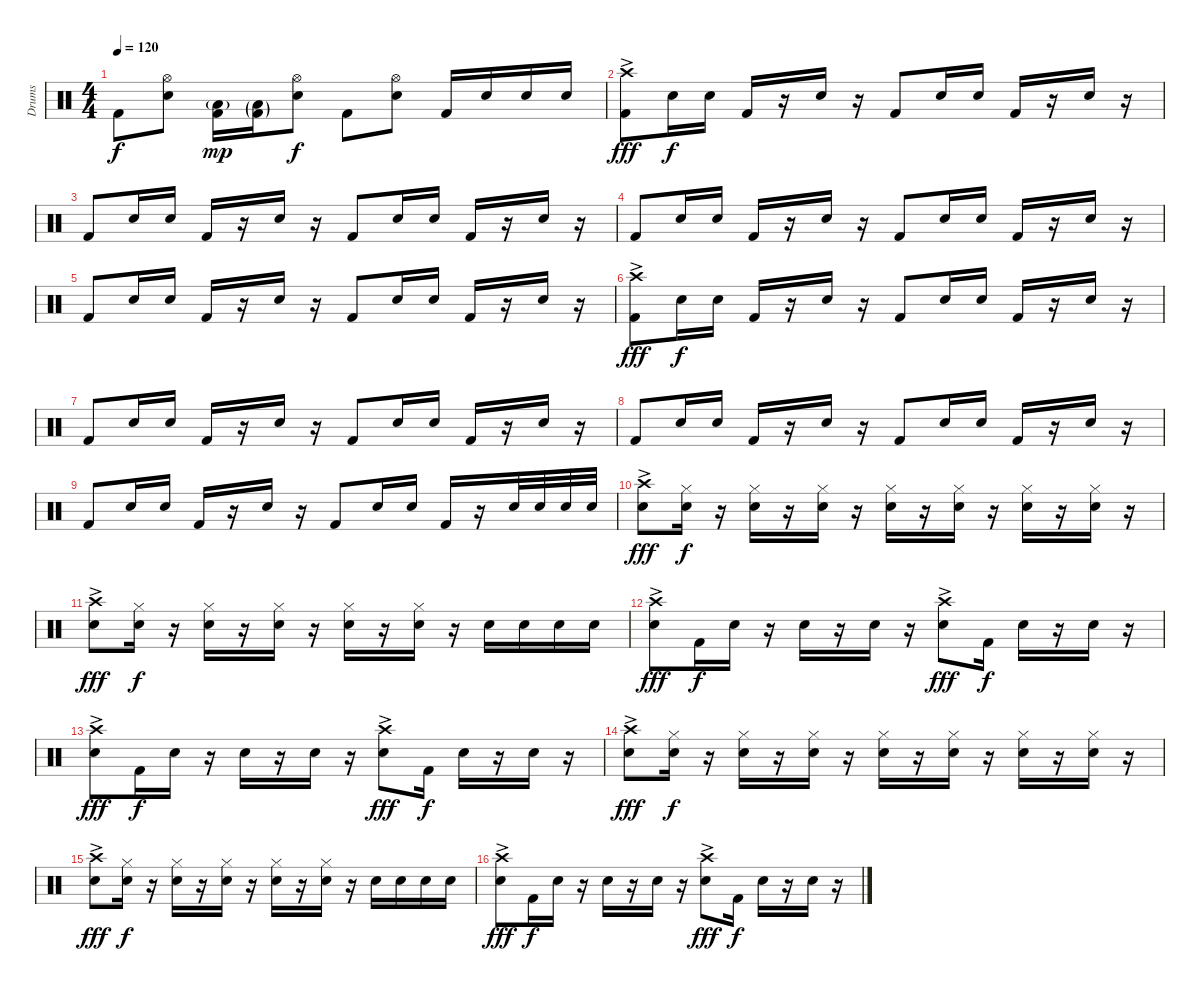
\track ("Drums" "Drums") {instrument percussion}
\staff {score}
\articulation defaults
\ts (4 4)
\tempo 120
\clef neutral
\ks c "Kick (hit) 2".8{dy f}
("Hi-Hat (open)" "Snare (hit) 2").8 ("Kick (hit) 2" "Low Floor Tom (hit)"{g}).16{dy mp} ("Kick (hit) 2"{g} "Low Floor Tom (hit)"{g}).16 ("Hi-Hat (open)" "Snare (hit) 2").8{dy f} "Kick (hit) 2".8 ("Hi-Hat (open)" "Snare (hit) 2").8 "Kick (hit) 2".16 "Snare (hit) 2".16 "Snare (hit) 2".16 "Snare (hit) 2".16 |
("Crash high (hit)"{ac} "Kick (hit) 2").8{dy fff} "Snare (hit) 2".16{dy f} "Snare (hit) 2".16 "Kick (hit) 2".16 r.16 "Snare (hit) 2".16 r.16 "Kick (hit) 2".8 "Snare (hit) 2".16 "Snare (hit) 2".16 "Kick (hit) 2".16 r.16 "Snare (hit) 2".16 r.16 |
"Kick (hit) 2".8 "Snare (hit) 2".16 "Snare (hit) 2".16 "Kick (hit) 2".16 r.16 "Snare (hit) 2".16 r.16 "Kick (hit) 2".8 "Snare (hit) 2".16 "Snare (hit) 2".16 "Kick (hit) 2".16 r.16 "Snare (hit) 2".16 r.16 |
"Kick (hit) 2".8 "Snare (hit) 2".16 "Snare (hit) 2".16 "Kick (hit) 2".16 r.16 "Snare (hit) 2".16 r.16 "Kick (hit) 2".8 "Snare (hit) 2".16 "Snare (hit) 2".16 "Kick (hit) 2".16 r.16 "Snare (hit) 2".16 r.16 |
"Kick (hit) 2".8 "Snare (hit) 2".16 "Snare (hit) 2".16 "Kick (hit) 2".16 r.16 "Snare (hit) 2".16 r.16 "Kick (hit) 2".8 "Snare (hit) 2".16 "Snare (hit) 2".16 "Kick (hit) 2".16 r.16 "Snare (hit) 2".16 r.16 |
("Crash high (hit)"{ac} "Kick (hit) 2").8{dy fff} "Snare (hit) 2".16{dy f} "Snare (hit) 2".16 "Kick (hit) 2".16 r.16 "Snare (hit) 2".16 r.16 "Kick (hit) 2".8 "Snare (hit) 2".16 "Snare (hit) 2".16 "Kick (hit) 2".16 r.16 "Snare (hit) 2".16 r.16 |
"Kick (hit) 2".8 "Snare (hit) 2".16 "Snare (hit) 2".16 "Kick (hit) 2".16 r.16 "Snare (hit) 2".16 r.16 "Kick (hit) 2".8 "Snare (hit) 2".16 "Snare (hit) 2".16 "Kick (hit) 2".16 r.16 "Snare (hit) 2".16 r.16 |
"Kick (hit) 2".8 "Snare (hit) 2".16 "Snare (hit) 2".16 "Kick (hit) 2".16 r.16 "Snare (hit) 2".16 r.16 "Kick (hit) 2".8 "Snare (hit) 2".16 "Snare (hit) 2".16 "Kick (hit) 2".16 r.16 "Snare (hit) 2".16 r.16 |
"Kick (hit) 2".8 "Snare (hit) 2".16 "Snare (hit) 2".16 "Kick (hit) 2".16 r.16 "Snare (hit) 2".16 r.16 "Kick (hit) 2".8 "Snare (hit) 2".16 "Snare (hit) 2".16 "Kick (hit) 2".16 r.16 "Snare (hit) 2".32 "Snare (hit) 2".32 "Snare (hit) 2".32 "Snare (hit) 2".32 |
("Crash high (hit)"{ac} "Snare (hit) 2").8{dy fff} ("Hi-Hat (closed)" "Snare (hit) 2").16{dy f} r.16 ("Hi-Hat (closed)" "Snare (hit) 2").16 r.16 ("Hi-Hat (closed)" "Snare (hit) 2").16 r.16 ("Hi-Hat (closed)" "Snare (hit) 2").16 r.16 ("Hi-Hat (closed)" "Snare (hit) 2").16 r.16 ("Hi-Hat (closed)" "Snare (hit) 2").16 r.16 ("Hi-Hat (closed)" "Snare (hit) 2").16 r.16 |
("Crash high (hit)"{ac} "Snare (hit) 2").8{dy fff} ("Hi-Hat (closed)" "Snare (hit) 2").16{dy f} r.16 ("Hi-Hat (closed)" "Snare (hit) 2").16 r.16 ("Hi-Hat (closed)" "Snare (hit) 2").16 r.16 ("Hi-Hat (closed)" "Snare (hit) 2").16 r.16 ("Hi-Hat (closed)" "Snare (hit) 2").16 r.16 "Snare (hit) 2".16 "Snare (hit) 2".16 "Snare (hit) 2".16 "Snare (hit) 2".16 |
("Crash high (hit)"{ac} "Snare (hit) 2").8{dy fff} "Kick (hit) 2".16{dy f} "Snare (hit) 2".16 r.16 "Snare (hit) 2".16 r.16 "Snare (hit) 2".16 r.16 ("Crash high (hit)"{ac} "Snare (hit) 2").8{dy fff} "Kick (hit) 2".16{dy f} "Snare (hit) 2".16 r.16 "Snare (hit) 2".16 r.16 |
("Crash high (hit)"{ac} "Snare (hit) 2").8{dy fff} "Kick (hit) 2".16{dy f} "Snare (hit) 2".16 r.16 "Snare (hit) 2".16 r.16 "Snare (hit) 2".16 r.16 ("Crash high (hit)"{ac} "Snare (hit) 2").8{dy fff} "Kick (hit) 2".16{dy f} "Snare (hit) 2".16 r.16 "Snare (hit) 2".16 r.16 |
("Crash high (hit)"{ac} "Snare (hit) 2").8{dy fff} ("Hi-Hat (closed)" "Snare (hit) 2").16{dy f} r.16 ("Hi-Hat (closed)" "Snare (hit) 2").16 r.16 ("Hi-Hat (closed)" "Snare (hit) 2").16 r.16 ("Hi-Hat (closed)" "Snare (hit) 2").16 r.16 ("Hi-Hat (closed)" "Snare (hit) 2").16 r.16 ("Hi-Hat (closed)" "Snare (hit) 2").16 r.16 ("Hi-Hat (closed)" "Snare (hit) 2").16 r.16 |
("Crash high (hit)"{ac} "Snare (hit) 2").8{dy fff} ("Hi-Hat (closed)" "Snare (hit) 2").16{dy f} r.16 ("Hi-Hat (closed)" "Snare (hit) 2").16 r.16 ("Hi-Hat (closed)" "Snare (hit) 2").16 r.16 ("Hi-Hat (closed)" "Snare (hit) 2").16 r.16 ("Hi-Hat (closed)" "Snare (hit) 2").16 r.16 "Snare (hit) 2".16 "Snare (hit) 2".16 "Snare (hit) 2".16 "Snare (hit) 2".16 |
("Crash high (hit)"{ac} "Snare (hit) 2").8{dy fff} "Kick (hit) 2".16{dy f} "Snare (hit) 2".16 r.16 "Snare (hit) 2".16 r.16 "Snare (hit) 2".16 r.16 ("Crash high (hit)"{ac} "Snare (hit) 2").8{dy fff} "Kick (hit) 2".16{dy f} "Snare (hit) 2".16 r.16 "Snare (hit) 2".16 r.16
